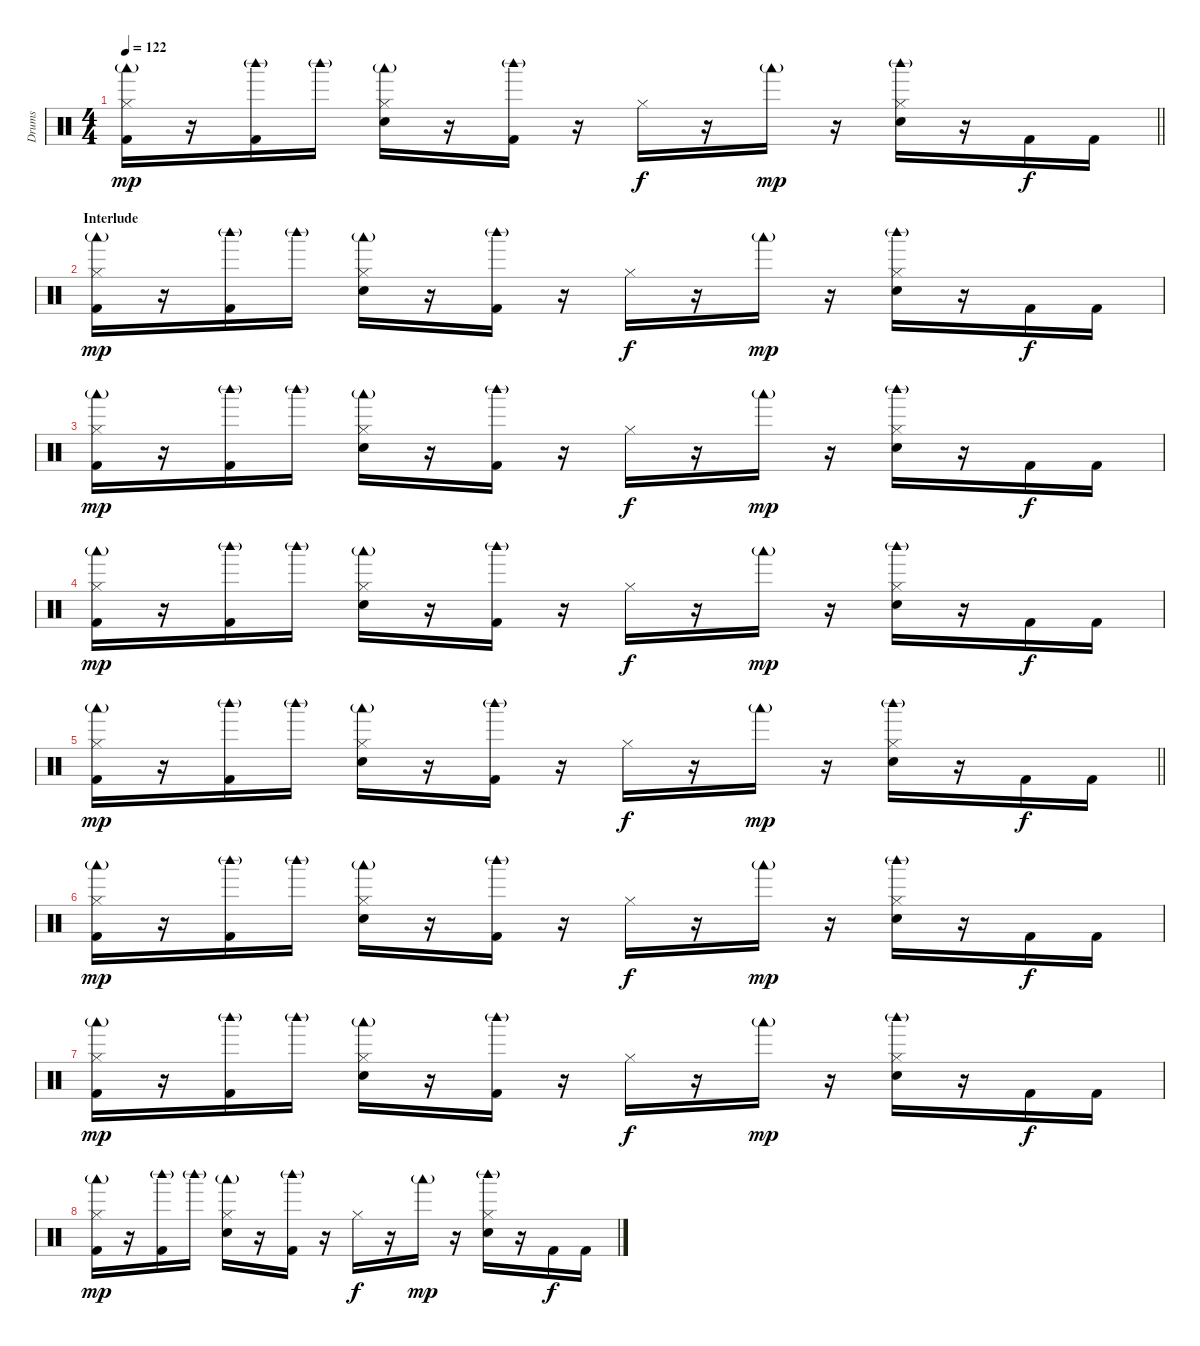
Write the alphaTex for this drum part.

\track ("Drums" "Drums") {instrument percussion}
\staff {score}
\articulation defaults
\ts (4 4)
\tempo 122
\clef neutral
\barLineRight lightlight
\ks c
("Hi-Hat (closed)" "Woodblock low (hit)"{g} "Kick (hit) 2").16{dy mp} r.16 ("Woodblock high (hit)"{g} "Kick (hit) 2").16 "Woodblock high (hit)"{g}.16 ("Hi-Hat (closed)" "Hand Clap (hit)" "Woodblock low (hit)"{g}).16 r.16 ("Woodblock high (hit)"{g} "Kick (hit) 2").16 r.16 "Hi-Hat (closed)".16{dy f} r.16 "Woodblock low (hit)"{g}.16{dy mp} r.16 ("Hi-Hat (closed)" "Hand Clap (hit)" "Woodblock high (hit)"{g}).16 r.16 "Kick (hit) 2".16{dy f} "Kick (hit) 2".16 |
\section ("" "Interlude")
("Hi-Hat (closed)" "Woodblock low (hit)"{g} "Kick (hit) 2").16{dy mp} r.16 ("Woodblock high (hit)"{g} "Kick (hit) 2").16 "Woodblock high (hit)"{g}.16 ("Hi-Hat (closed)" "Hand Clap (hit)" "Woodblock low (hit)"{g}).16 r.16 ("Woodblock high (hit)"{g} "Kick (hit) 2").16 r.16 "Hi-Hat (closed)".16{dy f} r.16 "Woodblock low (hit)"{g}.16{dy mp} r.16 ("Hi-Hat (closed)" "Hand Clap (hit)" "Woodblock high (hit)"{g}).16 r.16 "Kick (hit) 2".16{dy f} "Kick (hit) 2".16 |
("Hi-Hat (closed)" "Woodblock low (hit)"{g} "Kick (hit) 2").16{dy mp} r.16 ("Woodblock high (hit)"{g} "Kick (hit) 2").16 "Woodblock high (hit)"{g}.16 ("Hi-Hat (closed)" "Hand Clap (hit)" "Woodblock low (hit)"{g}).16 r.16 ("Woodblock high (hit)"{g} "Kick (hit) 2").16 r.16 "Hi-Hat (closed)".16{dy f} r.16 "Woodblock low (hit)"{g}.16{dy mp} r.16 ("Hi-Hat (closed)" "Hand Clap (hit)" "Woodblock high (hit)"{g}).16 r.16 "Kick (hit) 2".16{dy f} "Kick (hit) 2".16 |
("Hi-Hat (closed)" "Woodblock low (hit)"{g} "Kick (hit) 2").16{dy mp} r.16 ("Woodblock high (hit)"{g} "Kick (hit) 2").16 "Woodblock high (hit)"{g}.16 ("Hi-Hat (closed)" "Hand Clap (hit)" "Woodblock low (hit)"{g}).16 r.16 ("Woodblock high (hit)"{g} "Kick (hit) 2").16 r.16 "Hi-Hat (closed)".16{dy f} r.16 "Woodblock low (hit)"{g}.16{dy mp} r.16 ("Hi-Hat (closed)" "Hand Clap (hit)" "Woodblock high (hit)"{g}).16 r.16 "Kick (hit) 2".16{dy f} "Kick (hit) 2".16 |
\barLineRight lightlight
("Hi-Hat (closed)" "Woodblock low (hit)"{g} "Kick (hit) 2").16{dy mp} r.16 ("Woodblock high (hit)"{g} "Kick (hit) 2").16 "Woodblock high (hit)"{g}.16 ("Hi-Hat (closed)" "Hand Clap (hit)" "Woodblock low (hit)"{g}).16 r.16 ("Woodblock high (hit)"{g} "Kick (hit) 2").16 r.16 "Hi-Hat (closed)".16{dy f} r.16 "Woodblock low (hit)"{g}.16{dy mp} r.16 ("Hi-Hat (closed)" "Hand Clap (hit)" "Woodblock high (hit)"{g}).16 r.16 "Kick (hit) 2".16{dy f} "Kick (hit) 2".16 |
("Hi-Hat (closed)" "Woodblock low (hit)"{g} "Kick (hit) 2").16{dy mp} r.16 ("Woodblock high (hit)"{g} "Kick (hit) 2").16 "Woodblock high (hit)"{g}.16 ("Hi-Hat (closed)" "Hand Clap (hit)" "Woodblock low (hit)"{g}).16 r.16 ("Woodblock high (hit)"{g} "Kick (hit) 2").16 r.16 "Hi-Hat (closed)".16{dy f} r.16 "Woodblock low (hit)"{g}.16{dy mp} r.16 ("Hi-Hat (closed)" "Hand Clap (hit)" "Woodblock high (hit)"{g}).16 r.16 "Kick (hit) 2".16{dy f} "Kick (hit) 2".16 |
("Hi-Hat (closed)" "Woodblock low (hit)"{g} "Kick (hit) 2").16{dy mp} r.16 ("Woodblock high (hit)"{g} "Kick (hit) 2").16 "Woodblock high (hit)"{g}.16 ("Hi-Hat (closed)" "Hand Clap (hit)" "Woodblock low (hit)"{g}).16 r.16 ("Woodblock high (hit)"{g} "Kick (hit) 2").16 r.16 "Hi-Hat (closed)".16{dy f} r.16 "Woodblock low (hit)"{g}.16{dy mp} r.16 ("Hi-Hat (closed)" "Hand Clap (hit)" "Woodblock high (hit)"{g}).16 r.16 "Kick (hit) 2".16{dy f} "Kick (hit) 2".16 |
("Hi-Hat (closed)" "Woodblock low (hit)"{g} "Kick (hit) 2").16{dy mp} r.16 ("Woodblock high (hit)"{g} "Kick (hit) 2").16 "Woodblock high (hit)"{g}.16 ("Hi-Hat (closed)" "Hand Clap (hit)" "Woodblock low (hit)"{g}).16 r.16 ("Woodblock high (hit)"{g} "Kick (hit) 2").16 r.16 "Hi-Hat (closed)".16{dy f} r.16 "Woodblock low (hit)"{g}.16{dy mp} r.16 ("Hi-Hat (closed)" "Hand Clap (hit)" "Woodblock high (hit)"{g}).16 r.16 "Kick (hit) 2".16{dy f} "Kick (hit) 2".16
